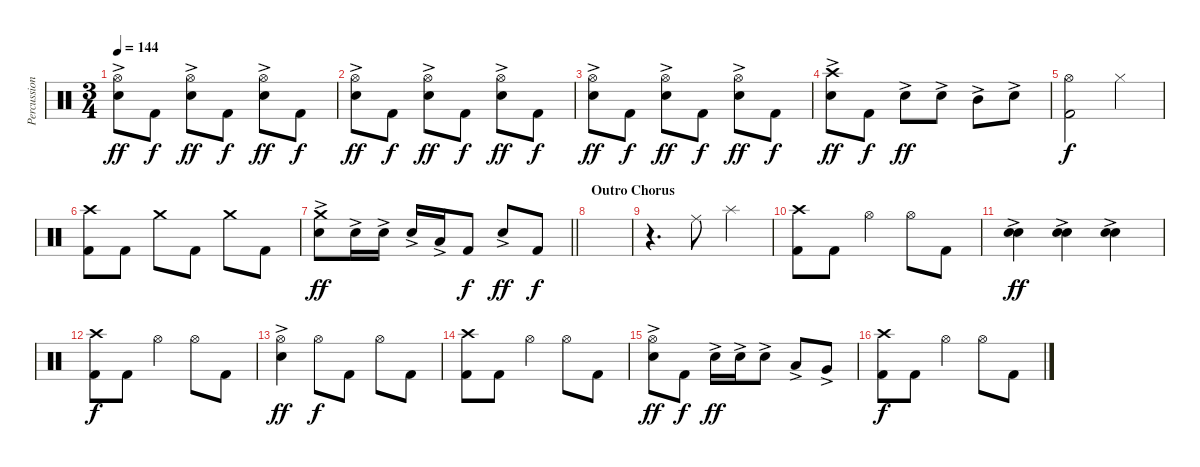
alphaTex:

\track ("Percussion" "Percussion") {instrument percussion}
\staff {score}
\articulation defaults
\ts (3 4)
\tempo 144
\clef neutral
\ks c
("Hi-Hat (open)" "Electric Snare (hit)"{ac}).8{dy ff} "Kick (hit) 2".8{dy f} ("Hi-Hat (open)" "Electric Snare (hit)"{ac}).8{dy ff} "Kick (hit) 2".8{dy f} ("Hi-Hat (open)" "Electric Snare (hit)"{ac}).8{dy ff} "Kick (hit) 2".8{dy f} |
("Hi-Hat (open)" "Electric Snare (hit)"{ac}).8{dy ff} "Kick (hit) 2".8{dy f} ("Hi-Hat (open)" "Electric Snare (hit)"{ac}).8{dy ff} "Kick (hit) 2".8{dy f} ("Hi-Hat (open)" "Electric Snare (hit)"{ac}).8{dy ff} "Kick (hit) 2".8{dy f} |
("Hi-Hat (open)" "Electric Snare (hit)"{ac}).8{dy ff} "Kick (hit) 2".8{dy f} ("Hi-Hat (open)" "Electric Snare (hit)"{ac}).8{dy ff} "Kick (hit) 2".8{dy f} ("Hi-Hat (open)" "Electric Snare (hit)"{ac}).8{dy ff} "Kick (hit) 2".8{dy f} |
("Crash high (hit)" "Electric Snare (hit)"{ac}).8{dy ff} "Kick (hit) 2".8{dy f} "Electric Snare (hit)"{ac}.8{dy ff} "Electric Snare (hit)"{ac}.8 "Mid Tom (hit)"{ac}.8 "Electric Snare (hit)"{ac}.8 |
("Hi-Hat (open)" "Kick (hit) 2").2{dy f} "Hi-Hat (closed)".4 |
("Crash high (hit)" "Kick (hit) 2").8 "Kick (hit) 2".8 "Crash medium (hit)".8 "Kick (hit) 2".8 "Crash medium (hit)".8 "Kick (hit) 2".8 |
\barLineRight lightlight
("Crash medium (hit)" "Electric Snare (hit)"{ac}).8{dy ff} "Electric Snare (hit)"{ac}.16 "Electric Snare (hit)"{ac}.16 "Electric Snare (hit)"{ac}.16 "Low Tom (hit)"{ac}.16 "Kick (hit) 2".8{dy f} "Electric Snare (hit)"{ac}.8{dy ff} "Kick (hit) 2".8{dy f} |
\section ("" "Outro Chorus")
|
r.4{d} "Ride (middle)".8 "Splash (hit)".4 |
("Crash high (hit)" "Kick (hit) 2").8 "Kick (hit) 2".8 "Hi-Hat (open)".4 "Hi-Hat (open)".8 "Kick (hit) 2".8 |
("Electric Snare (hit)"{ac} "Electric Snare (hit)").4{bu 120 dy ff} ("Electric Snare (hit)"{ac} "Electric Snare (hit)").4{bu 120} ("Electric Snare (hit)"{ac} "Electric Snare (hit)").4{bu 120} |
("Crash high (hit)" "Kick (hit) 2").8{dy f} "Kick (hit) 2".8 "Hi-Hat (open)".4 "Hi-Hat (open)".8 "Kick (hit) 2".8 |
("Hi-Hat (open)" "Electric Snare (hit)"{ac}).4{dy ff} "Hi-Hat (open)".8{dy f} "Kick (hit) 2".8 "Hi-Hat (open)".8 "Kick (hit) 2".8 |
("Crash high (hit)" "Kick (hit) 2").8 "Kick (hit) 2".8 "Hi-Hat (open)".4 "Hi-Hat (open)".8 "Kick (hit) 2".8 |
("Hi-Hat (open)" "Electric Snare (hit)"{ac}).8{dy ff} "Kick (hit) 2".8{dy f} "Electric Snare (hit)"{ac}.16{dy ff} "Electric Snare (hit)"{ac}.16 "Electric Snare (hit)"{ac}.8 "Low Tom (hit)"{ac}.8 "Very Low Tom (hit)"{ac}.8 |
("Crash high (hit)" "Kick (hit) 2").8{dy f} "Kick (hit) 2".8 "Hi-Hat (open)".4 "Hi-Hat (open)".8 "Kick (hit) 2".8
